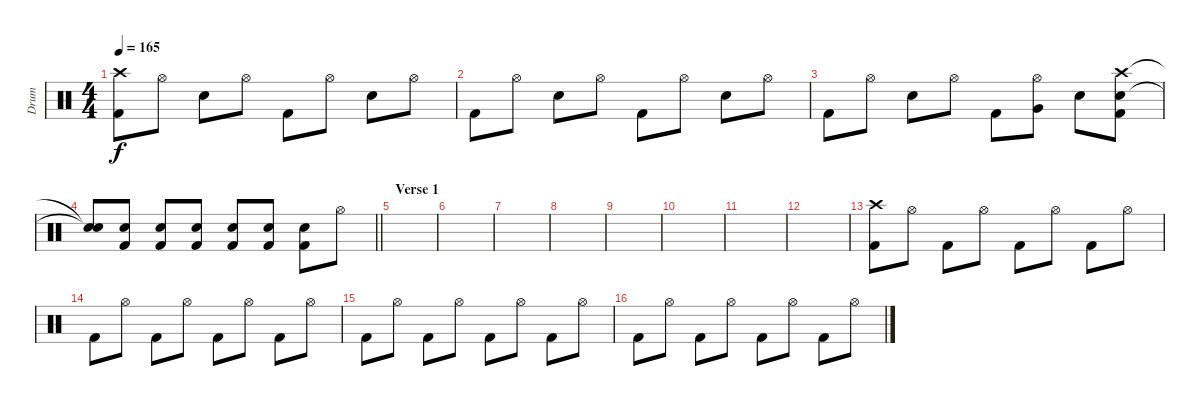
\track ("Drum" "Drum") {instrument percussion}
\staff {score}
\articulation defaults
\ts (4 4)
\tempo 165
\clef neutral
\ks c
("Crash high (hit)" "Kick (hit) 2").8{dy f} "Hi-Hat (open)".8 "Electric Snare (hit)".8 "Hi-Hat (open)".8 "Kick (hit) 2".8 "Hi-Hat (open)".8 "Electric Snare (hit)".8 "Hi-Hat (open)".8 |
"Kick (hit) 2".8 "Hi-Hat (open)".8 "Electric Snare (hit)".8 "Hi-Hat (open)".8 "Kick (hit) 2".8 "Hi-Hat (open)".8 "Electric Snare (hit)".8 "Hi-Hat (open)".8 |
"Kick (hit) 2".8 "Hi-Hat (open)".8 "Electric Snare (hit)".8 "Hi-Hat (open)".8 "Kick (hit) 2".8 ("Hi-Hat (open)" "Very Low Tom (hit)").8 "Electric Snare (hit)".8 ("Crash high (hit)" "Electric Snare (hit)" "Kick (hit) 2").8 |
\barLineRight lightlight
("Snare (hit)"{t} "Snare (hit)"{t}).8 ("Electric Snare (hit)" "Kick (hit) 2").8 ("Electric Snare (hit)" "Kick (hit) 2").8 ("Electric Snare (hit)" "Kick (hit) 2").8 ("Electric Snare (hit)" "Kick (hit) 2").8 ("Electric Snare (hit)" "Kick (hit) 2").8 ("Electric Snare (hit)" "Kick (hit) 2").8 "Hi-Hat (open)".8 |
\section ("" "Verse 1")
|
|
|
|
|
|
|
|
("Crash high (hit)" "Kick (hit) 2").8 "Hi-Hat (open)".8 "Kick (hit) 2".8 "Hi-Hat (open)".8 "Kick (hit) 2".8 "Hi-Hat (open)".8 "Kick (hit) 2".8 "Hi-Hat (open)".8 |
"Kick (hit) 2".8 "Hi-Hat (open)".8 "Kick (hit) 2".8 "Hi-Hat (open)".8 "Kick (hit) 2".8 "Hi-Hat (open)".8 "Kick (hit) 2".8 "Hi-Hat (open)".8 |
"Kick (hit) 2".8 "Hi-Hat (open)".8 "Kick (hit) 2".8 "Hi-Hat (open)".8 "Kick (hit) 2".8 "Hi-Hat (open)".8 "Kick (hit) 2".8 "Hi-Hat (open)".8 |
"Kick (hit) 2".8 "Hi-Hat (open)".8 "Kick (hit) 2".8 "Hi-Hat (open)".8 "Kick (hit) 2".8 "Hi-Hat (open)".8 "Kick (hit) 2".8 "Hi-Hat (open)".8
